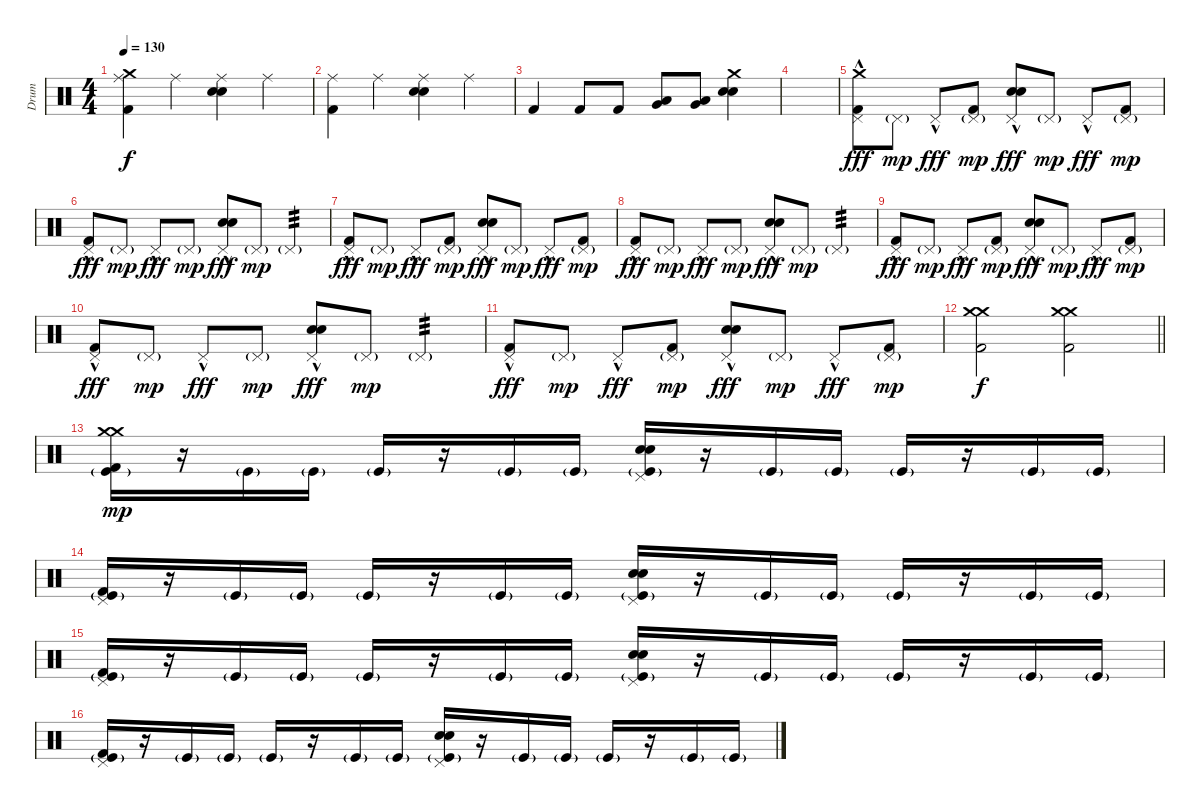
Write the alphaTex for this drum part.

\track ("Drum" "Drum") {instrument percussion}
\staff {score}
\articulation defaults
\ts (4 4)
\tempo 130
\clef neutral
\ks c
("Crash medium (hit)" "Kick (hit) 2" "Ride (middle)").4{dy f} "Ride (middle)".4 ("Electric Snare (hit)" "Electric Snare (hit)" "Ride (middle)").4 "Ride (middle)".4 |
("Kick (hit) 2" "Ride (middle)").4 "Ride (middle)".4 ("Electric Snare (hit)" "Electric Snare (hit)" "Ride (middle)").4 "Ride (middle)".4 |
"Kick (hit) 2".4 "Kick (hit) 2".8 "Kick (hit) 2".8 ("Low Floor Tom (hit)" "Very Low Tom (hit)").8 ("Low Floor Tom (hit)" "Very Low Tom (hit)").8 ("Crash medium (hit)" "Electric Snare (hit)" "Electric Snare (hit)").4 |
|
("Crash medium (hit)" "Kick (hit) 2" "Pedal Hi-Hat (hit)"{hac}).8{dy fff} "Pedal Hi-Hat (hit)"{g}.8{dy mp} "Pedal Hi-Hat (hit)"{hac}.8{dy fff} ("Kick (hit) 2" "Pedal Hi-Hat (hit)"{g}).8{dy mp} ("Electric Snare (hit)" "Electric Snare (hit)" "Pedal Hi-Hat (hit)"{hac}).8{dy fff} "Pedal Hi-Hat (hit)"{g}.8{dy mp} "Pedal Hi-Hat (hit)"{hac}.8{dy fff} ("Kick (hit) 2" "Pedal Hi-Hat (hit)"{g}).8{dy mp} |
("Kick (hit) 2" "Pedal Hi-Hat (hit)"{hac}).8{dy fff} "Pedal Hi-Hat (hit)"{g}.8{dy mp} "Pedal Hi-Hat (hit)"{hac}.8{dy fff} "Pedal Hi-Hat (hit)"{g}.8{dy mp} ("Electric Snare (hit)" "Electric Snare (hit)" "Pedal Hi-Hat (hit)"{hac}).8{dy fff} "Pedal Hi-Hat (hit)"{g}.8{dy mp} "Pedal Hi-Hat (hit)"{g}.4{tp 3} |
("Kick (hit) 2" "Pedal Hi-Hat (hit)"{hac}).8{dy fff} "Pedal Hi-Hat (hit)"{g}.8{dy mp} "Pedal Hi-Hat (hit)"{hac}.8{dy fff} ("Kick (hit) 2" "Pedal Hi-Hat (hit)"{g}).8{dy mp} ("Electric Snare (hit)" "Electric Snare (hit)" "Pedal Hi-Hat (hit)"{hac}).8{dy fff} "Pedal Hi-Hat (hit)"{g}.8{dy mp} "Pedal Hi-Hat (hit)"{hac}.8{dy fff} ("Kick (hit) 2" "Pedal Hi-Hat (hit)"{g}).8{dy mp} |
("Kick (hit) 2" "Pedal Hi-Hat (hit)"{hac}).8{dy fff} "Pedal Hi-Hat (hit)"{g}.8{dy mp} "Pedal Hi-Hat (hit)"{hac}.8{dy fff} "Pedal Hi-Hat (hit)"{g}.8{dy mp} ("Electric Snare (hit)" "Electric Snare (hit)" "Pedal Hi-Hat (hit)"{hac}).8{dy fff} "Pedal Hi-Hat (hit)"{g}.8{dy mp} "Pedal Hi-Hat (hit)"{g}.4{tp 3} |
("Kick (hit) 2" "Pedal Hi-Hat (hit)"{hac}).8{dy fff} "Pedal Hi-Hat (hit)"{g}.8{dy mp} "Pedal Hi-Hat (hit)"{hac}.8{dy fff} ("Kick (hit) 2" "Pedal Hi-Hat (hit)"{g}).8{dy mp} ("Electric Snare (hit)" "Electric Snare (hit)" "Pedal Hi-Hat (hit)"{hac}).8{dy fff} "Pedal Hi-Hat (hit)"{g}.8{dy mp} "Pedal Hi-Hat (hit)"{hac}.8{dy fff} ("Kick (hit) 2" "Pedal Hi-Hat (hit)"{g}).8{dy mp} |
("Kick (hit) 2" "Pedal Hi-Hat (hit)"{hac}).8{dy fff} "Pedal Hi-Hat (hit)"{g}.8{dy mp} "Pedal Hi-Hat (hit)"{hac}.8{dy fff} "Pedal Hi-Hat (hit)"{g}.8{dy mp} ("Electric Snare (hit)" "Electric Snare (hit)" "Pedal Hi-Hat (hit)"{hac}).8{dy fff} "Pedal Hi-Hat (hit)"{g}.8{dy mp} "Pedal Hi-Hat (hit)"{g}.4{tp 3} |
("Kick (hit) 2" "Pedal Hi-Hat (hit)"{hac}).8{dy fff} "Pedal Hi-Hat (hit)"{g}.8{dy mp} "Pedal Hi-Hat (hit)"{hac}.8{dy fff} ("Kick (hit) 2" "Pedal Hi-Hat (hit)"{g}).8{dy mp} ("Electric Snare (hit)" "Electric Snare (hit)" "Pedal Hi-Hat (hit)"{hac}).8{dy fff} "Pedal Hi-Hat (hit)"{g}.8{dy mp} "Pedal Hi-Hat (hit)"{hac}.8{dy fff} ("Kick (hit) 2" "Pedal Hi-Hat (hit)"{g}).8{dy mp} |
\barLineRight lightlight
("Crash medium (hit)" "Crash medium (hit)" "Kick (hit) 2").2{dy f} ("Crash medium (hit)" "Crash medium (hit)" "Kick (hit) 2").2 |
("Crash medium (hit)" "Crash medium (hit)" "Kick (hit) 2" "Kick (hit)"{g}).16{dy mp} r.16 "Kick (hit)"{g}.16 "Kick (hit)"{g}.16 "Kick (hit)"{g}.16 r.16 "Kick (hit)"{g}.16 "Kick (hit)"{g}.16 ("Pedal Hi-Hat (hit)" "Electric Snare (hit)" "Electric Snare (hit)" "Kick (hit)"{g}).16 r.16 "Kick (hit)"{g}.16 "Kick (hit)"{g}.16 "Kick (hit)"{g}.16 r.16 "Kick (hit)"{g}.16 "Kick (hit)"{g}.16 |
("Pedal Hi-Hat (hit)" "Kick (hit) 2" "Kick (hit)"{g}).16 r.16 "Kick (hit)"{g}.16 "Kick (hit)"{g}.16 "Kick (hit)"{g}.16 r.16 "Kick (hit)"{g}.16 "Kick (hit)"{g}.16 ("Pedal Hi-Hat (hit)" "Electric Snare (hit)" "Electric Snare (hit)" "Kick (hit)"{g}).16 r.16 "Kick (hit)"{g}.16 "Kick (hit)"{g}.16 "Kick (hit)"{g}.16 r.16 "Kick (hit)"{g}.16 "Kick (hit)"{g}.16 |
("Pedal Hi-Hat (hit)" "Kick (hit) 2" "Kick (hit)"{g}).16 r.16 "Kick (hit)"{g}.16 "Kick (hit)"{g}.16 "Kick (hit)"{g}.16 r.16 "Kick (hit)"{g}.16 "Kick (hit)"{g}.16 ("Pedal Hi-Hat (hit)" "Electric Snare (hit)" "Electric Snare (hit)" "Kick (hit)"{g}).16 r.16 "Kick (hit)"{g}.16 "Kick (hit)"{g}.16 "Kick (hit)"{g}.16 r.16 "Kick (hit)"{g}.16 "Kick (hit)"{g}.16 |
("Pedal Hi-Hat (hit)" "Kick (hit) 2" "Kick (hit)"{g}).16 r.16 "Kick (hit)"{g}.16 "Kick (hit)"{g}.16 "Kick (hit)"{g}.16 r.16 "Kick (hit)"{g}.16 "Kick (hit)"{g}.16 ("Pedal Hi-Hat (hit)" "Electric Snare (hit)" "Electric Snare (hit)" "Kick (hit)"{g}).16 r.16 "Kick (hit)"{g}.16 "Kick (hit)"{g}.16 "Kick (hit)"{g}.16 r.16 "Kick (hit)"{g}.16 "Kick (hit)"{g}.16
